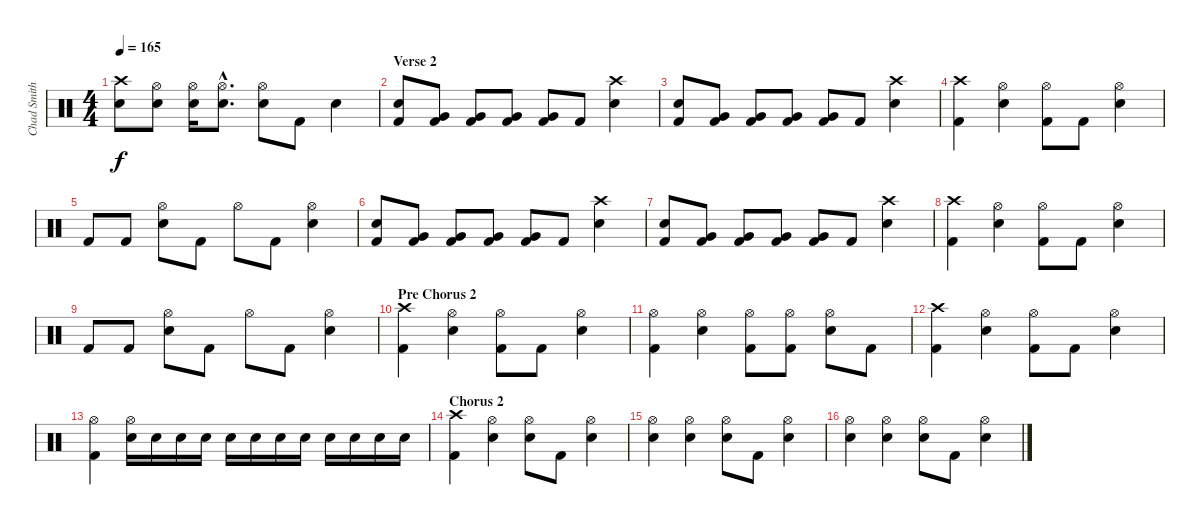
\track ("Chad Smith - Drums" "Chad Smith") {instrument percussion}
\staff {score}
\articulation defaults
\ts (4 4)
\tempo 165
\clef neutral
\ks c
("Crash high (hit)" "Snare (hit) 2").8{dy f} ("Hi-Hat (open)" "Snare (hit) 2").8 ("Hi-Hat (open)" "Snare (hit) 2").16 ("Snare (hit) 2"{hac} "Hi-Hat (open)"{hac}).8{d} ("Hi-Hat (open)" "Snare (hit) 2").8 "Kick (hit) 2".8 "Snare (hit) 2".4 |
\section ("" "Verse 2")
("Kick (hit) 2" "Snare (hit) 2").8 ("Very Low Tom (hit)" "Kick (hit) 2").8 ("Kick (hit) 2" "Very Low Tom (hit)").8 ("Very Low Tom (hit)" "Kick (hit) 2").8 ("Very Low Tom (hit)" "Kick (hit) 2").8 "Kick (hit) 2".8 ("Crash high (hit)" "Snare (hit) 2").4 |
("Snare (hit) 2" "Kick (hit) 2").8 ("Very Low Tom (hit)" "Kick (hit) 2").8 ("Very Low Tom (hit)" "Kick (hit) 2").8 ("Very Low Tom (hit)" "Kick (hit) 2").8 ("Very Low Tom (hit)" "Kick (hit) 2").8 "Kick (hit) 2".8 ("Crash high (hit)" "Snare (hit) 2").4 |
("Crash high (hit)" "Kick (hit) 2").4 ("Hi-Hat (open)" "Snare (hit) 2").4 ("Hi-Hat (open)" "Kick (hit) 2").8 "Kick (hit) 2".8 ("Hi-Hat (open)" "Snare (hit) 2").4 |
"Kick (hit) 2".8 "Kick (hit) 2".8 ("Hi-Hat (open)" "Snare (hit) 2").8 "Kick (hit) 2".8 "Hi-Hat (open)".8 "Kick (hit) 2".8 ("Snare (hit) 2" "Hi-Hat (open)").4 |
("Kick (hit) 2" "Snare (hit) 2").8 ("Very Low Tom (hit)" "Kick (hit) 2").8 ("Kick (hit) 2" "Very Low Tom (hit)").8 ("Very Low Tom (hit)" "Kick (hit) 2").8 ("Very Low Tom (hit)" "Kick (hit) 2").8 "Kick (hit) 2".8 ("Crash high (hit)" "Snare (hit) 2").4 |
("Snare (hit) 2" "Kick (hit) 2").8 ("Very Low Tom (hit)" "Kick (hit) 2").8 ("Very Low Tom (hit)" "Kick (hit) 2").8 ("Very Low Tom (hit)" "Kick (hit) 2").8 ("Very Low Tom (hit)" "Kick (hit) 2").8 "Kick (hit) 2".8 ("Crash high (hit)" "Snare (hit) 2").4 |
("Crash high (hit)" "Kick (hit) 2").4 ("Hi-Hat (open)" "Snare (hit) 2").4 ("Hi-Hat (open)" "Kick (hit) 2").8 "Kick (hit) 2".8 ("Hi-Hat (open)" "Snare (hit) 2").4 |
"Kick (hit) 2".8 "Kick (hit) 2".8 ("Hi-Hat (open)" "Snare (hit) 2").8 "Kick (hit) 2".8 "Hi-Hat (open)".8 "Kick (hit) 2".8 ("Snare (hit) 2" "Hi-Hat (open)").4 |
\section ("" "Pre Chorus 2")
("Crash high (hit)" "Kick (hit) 2").4 ("Hi-Hat (open)" "Snare (hit) 2").4 ("Hi-Hat (open)" "Kick (hit) 2").8 "Kick (hit) 2".8 ("Hi-Hat (open)" "Snare (hit) 2").4 |
("Hi-Hat (open)" "Kick (hit) 2").4 ("Hi-Hat (open)" "Snare (hit) 2").4 ("Hi-Hat (open)" "Kick (hit) 2").8 ("Hi-Hat (open)" "Kick (hit) 2").8 ("Hi-Hat (open)" "Snare (hit) 2").8 "Kick (hit) 2".8 |
("Crash high (hit)" "Kick (hit) 2").4 ("Hi-Hat (open)" "Snare (hit) 2").4 ("Hi-Hat (open)" "Kick (hit) 2").8 "Kick (hit) 2".8 ("Hi-Hat (open)" "Snare (hit) 2").4 |
("Hi-Hat (open)" "Kick (hit) 2").4 ("Hi-Hat (open)" "Snare (hit) 2").16 "Snare (hit) 2".16 "Snare (hit) 2".16 "Snare (hit) 2".16 "Snare (hit) 2".16 "Snare (hit) 2".16 "Snare (hit) 2".16 "Snare (hit) 2".16 "Snare (hit) 2".16 "Snare (hit) 2".16 "Snare (hit) 2".16 "Snare (hit) 2".16 |
\section ("" "Chorus 2")
("Crash high (hit)" "Kick (hit) 2").4 ("Hi-Hat (open)" "Snare (hit) 2").4 ("Hi-Hat (open)" "Snare (hit) 2").8 "Kick (hit) 2".8 ("Hi-Hat (open)" "Snare (hit) 2").4 |
("Hi-Hat (open)" "Snare (hit) 2").4 ("Hi-Hat (open)" "Snare (hit) 2").4 ("Hi-Hat (open)" "Snare (hit) 2").8 "Kick (hit) 2".8 ("Hi-Hat (open)" "Snare (hit) 2").4 |
("Hi-Hat (open)" "Snare (hit) 2").4 ("Hi-Hat (open)" "Snare (hit) 2").4 ("Hi-Hat (open)" "Snare (hit) 2").8 "Kick (hit) 2".8 ("Hi-Hat (open)" "Snare (hit) 2").4
